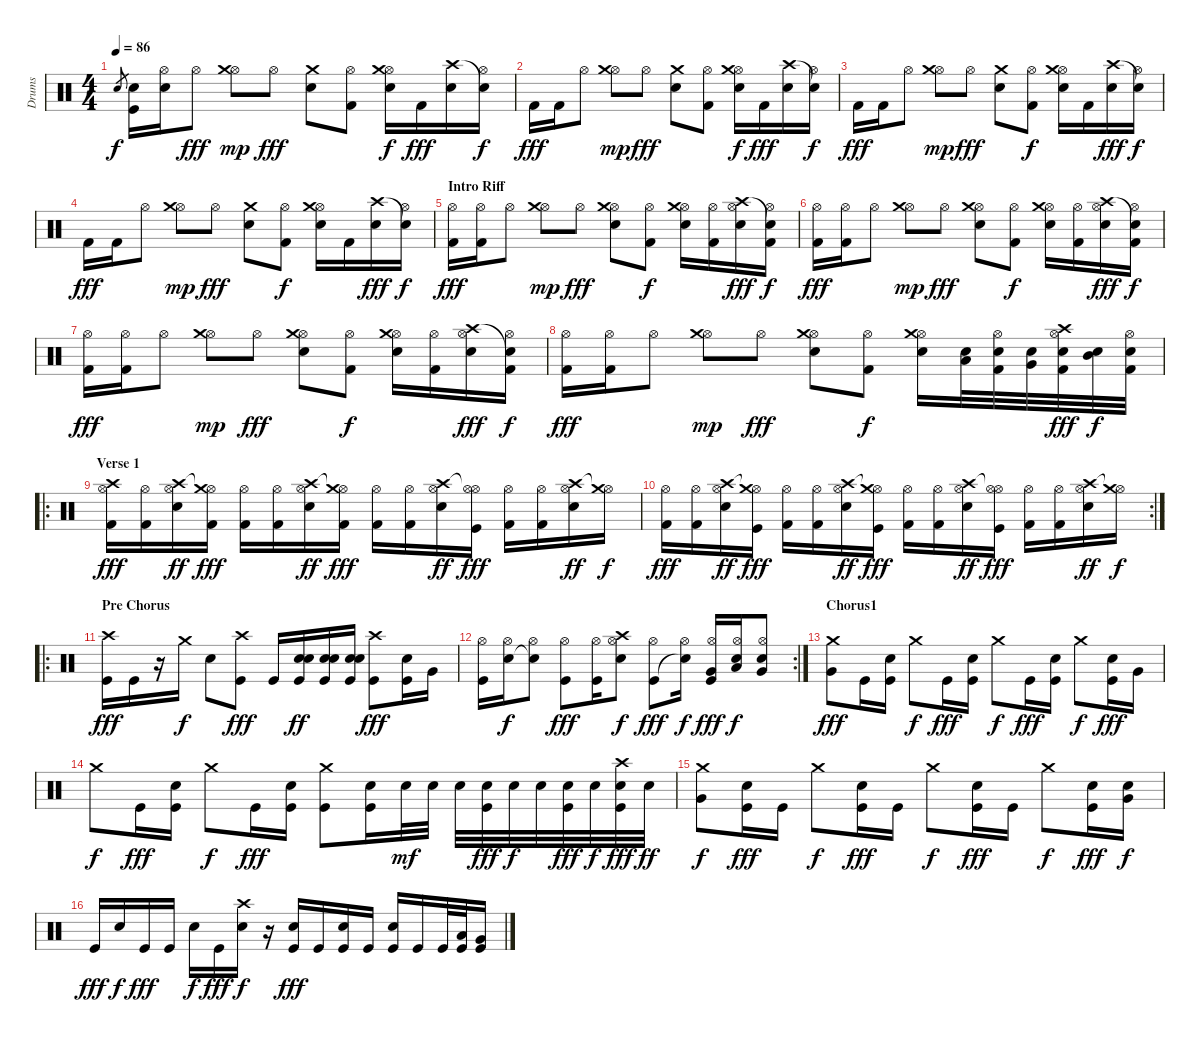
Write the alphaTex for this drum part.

\track ("Drums" "Drums") {instrument percussion}
\staff {score}
\articulation defaults
\ts (4 4)
\tempo 86
\clef neutral
\ks c "Snare (hit) 2".8{gr dy f}
("Snare (hit) 2" "Kick (hit)").16 ("Hi-Hat (open)" "Snare (hit) 2").16 "Hi-Hat (open)".8{dy fff} ("Hi-Hat (open)" "Crash medium (hit)").8{dy mp} "Hi-Hat (open)".8{dy fff} ("Crash medium (hit)" "Snare (hit) 2").8 ("Hi-Hat (open)" "Kick (hit) 2").8 ("Hi-Hat (open)" "Crash medium (hit)" "Snare (hit) 2").16{dy f} "Kick (hit) 2".16{dy fff} ("Crash high (hit)" "Snare (hit) 2").16 ("Snare (hit)"{t} "Hi-Hat (open)").16{dy f} |
"Kick (hit) 2".16{dy fff} "Kick (hit) 2".16 "Hi-Hat (open)".8 ("Hi-Hat (open)" "Crash medium (hit)").8{dy mp} "Hi-Hat (open)".8{dy fff} ("Crash medium (hit)" "Snare (hit) 2").8 ("Hi-Hat (open)" "Kick (hit) 2").8 ("Hi-Hat (open)" "Crash medium (hit)" "Snare (hit) 2").16{dy f} "Kick (hit) 2".16{dy fff} ("Crash high (hit)" "Snare (hit) 2").16 ("Snare (hit)"{t} "Hi-Hat (open)").16{dy f} |
"Kick (hit) 2".16{dy fff} "Kick (hit) 2".16 "Hi-Hat (open)".8 ("Hi-Hat (open)" "Crash medium (hit)").8{dy mp} "Hi-Hat (open)".8{dy fff} ("Crash medium (hit)" "Snare (hit) 2").8 ("Hi-Hat (open)" "Kick (hit) 2").8{dy f} ("Hi-Hat (open)" "Crash medium (hit)" "Snare (hit) 2").16 "Kick (hit) 2".16 ("Crash high (hit)" "Snare (hit) 2").16{dy fff} ("Snare (hit)"{t} "Hi-Hat (open)").16{dy f} |
"Kick (hit) 2".16{dy fff} "Kick (hit) 2".16 "Hi-Hat (open)".8 ("Hi-Hat (open)" "Crash medium (hit)").8{dy mp} "Hi-Hat (open)".8{dy fff} ("Crash medium (hit)" "Snare (hit) 2").8 ("Hi-Hat (open)" "Kick (hit) 2").8{dy f} ("Hi-Hat (open)" "Crash medium (hit)" "Snare (hit) 2").16 "Kick (hit) 2".16 ("Crash high (hit)" "Snare (hit) 2").16{dy fff} ("Snare (hit)"{t} "Hi-Hat (open)").16{dy f} |
\section ("" "Intro Riff")
("Hi-Hat (open)" "Kick (hit) 2").16{dy fff} ("Hi-Hat (open)" "Kick (hit) 2").16 "Hi-Hat (open)".8 ("Hi-Hat (open)" "Crash medium (hit)").8{dy mp} "Hi-Hat (open)".8{dy fff} ("Hi-Hat (open)" "Crash medium (hit)" "Snare (hit) 2").8 ("Hi-Hat (open)" "Kick (hit) 2").8{dy f} ("Hi-Hat (open)" "Crash medium (hit)" "Snare (hit) 2").16 ("Hi-Hat (open)" "Kick (hit) 2").16 ("Hi-Hat (open)" "Crash high (hit)" "Snare (hit) 2").16{dy fff} ("Hi-Hat (open)" "Snare (hit)"{t} "Kick (hit) 2").16{dy f} |
("Hi-Hat (open)" "Kick (hit) 2").16{dy fff} ("Hi-Hat (open)" "Kick (hit) 2").16 "Hi-Hat (open)".8 ("Hi-Hat (open)" "Crash medium (hit)").8{dy mp} "Hi-Hat (open)".8{dy fff} ("Hi-Hat (open)" "Crash medium (hit)" "Snare (hit) 2").8 ("Hi-Hat (open)" "Kick (hit) 2").8{dy f} ("Hi-Hat (open)" "Crash medium (hit)" "Snare (hit) 2").16 ("Hi-Hat (open)" "Kick (hit) 2").16 ("Hi-Hat (open)" "Crash high (hit)" "Snare (hit) 2").16{dy fff} ("Hi-Hat (open)" "Snare (hit)"{t} "Kick (hit) 2").16{dy f} |
("Hi-Hat (open)" "Kick (hit) 2").16{dy fff} ("Hi-Hat (open)" "Kick (hit) 2").16 "Hi-Hat (open)".8 ("Hi-Hat (open)" "Crash medium (hit)").8{dy mp} "Hi-Hat (open)".8{dy fff} ("Hi-Hat (open)" "Crash medium (hit)" "Snare (hit) 2").8 ("Hi-Hat (open)" "Kick (hit) 2").8{dy f} ("Hi-Hat (open)" "Crash medium (hit)" "Snare (hit) 2").16 ("Hi-Hat (open)" "Kick (hit) 2").16 ("Hi-Hat (open)" "Crash high (hit)" "Snare (hit) 2").16{dy fff} ("Hi-Hat (open)" "Snare (hit)"{t} "Kick (hit) 2").16{dy f} |
("Hi-Hat (open)" "Kick (hit) 2").16{dy fff} ("Hi-Hat (open)" "Kick (hit) 2").16 "Hi-Hat (open)".8 ("Hi-Hat (open)" "Crash medium (hit)").8{dy mp} "Hi-Hat (open)".8{dy fff} ("Hi-Hat (open)" "Crash medium (hit)" "Snare (hit) 2").8 ("Hi-Hat (open)" "Kick (hit) 2").8{dy f} ("Hi-Hat (open)" "Crash medium (hit)" "Snare (hit) 2").16 ("Low Tom (hit)" "Snare (hit) 2").32 ("Hi-Hat (open)" "Snare (hit) 2" "Kick (hit) 2").32 ("Very Low Tom (hit)" "Snare (hit) 2").32 ("Hi-Hat (open)" "Crash high (hit)" "Snare (hit) 2" "Kick (hit) 2").32{dy fff} ("Mid Tom (hit)" "Snare (hit) 2").32{dy f} ("Hi-Hat (open)" "Snare (hit) 2" "Kick (hit) 2").32 |
\ro
\section ("" "Verse 1")
("Hi-Hat (open)" "Crash high (hit)" "Kick (hit) 2").16{dy fff} ("Hi-Hat (open)" "Kick (hit) 2").16 ("Hi-Hat (open)" "Crash high (hit)" "Snare (hit) 2").16{dy ff} ("Hi-Hat (open)" "Crash medium (hit)"{t} "Kick (hit) 2").16{dy fff} ("Hi-Hat (open)" "Kick (hit) 2").16 ("Hi-Hat (open)" "Kick (hit) 2").16 ("Hi-Hat (open)" "Crash high (hit)" "Snare (hit) 2").16{dy ff} ("Hi-Hat (open)" "Crash medium (hit)"{t} "Kick (hit) 2").16{dy fff} ("Hi-Hat (open)" "Kick (hit) 2").16 ("Hi-Hat (open)" "Kick (hit) 2").16 ("Hi-Hat (open)" "Crash high (hit)" "Snare (hit) 2").16{dy ff} ("Hi-Hat (open)" "Hi-Hat (open)"{t} "Kick (hit)").16{dy fff} ("Hi-Hat (open)" "Kick (hit) 2").16 ("Hi-Hat (open)" "Kick (hit) 2").16 ("Hi-Hat (open)" "Crash high (hit)" "Snare (hit) 2").16{dy ff} ("Hi-Hat (open)" "Crash medium (hit)"{t}).16{dy f} |
\rc 2
("Hi-Hat (open)" "Kick (hit) 2").16{dy fff} ("Hi-Hat (open)" "Kick (hit) 2").16 ("Hi-Hat (open)" "Crash high (hit)" "Snare (hit) 2").16{dy ff} ("Hi-Hat (open)" "Crash medium (hit)"{t} "Kick (hit)").16{dy fff} ("Hi-Hat (open)" "Kick (hit) 2").16 ("Hi-Hat (open)" "Kick (hit) 2").16 ("Hi-Hat (open)" "Crash high (hit)" "Snare (hit) 2").16{dy ff} ("Hi-Hat (open)" "Crash medium (hit)"{t} "Kick (hit)").16{dy fff} ("Hi-Hat (open)" "Kick (hit) 2").16 ("Hi-Hat (open)" "Kick (hit) 2").16 ("Hi-Hat (open)" "Crash high (hit)" "Snare (hit) 2").16{dy ff} ("Hi-Hat (open)" "Hi-Hat (open)"{t} "Kick (hit)").16{dy fff} ("Hi-Hat (open)" "Kick (hit) 2").16 ("Hi-Hat (open)" "Kick (hit) 2").16 ("Hi-Hat (open)" "Crash high (hit)" "Snare (hit) 2").16{dy ff} ("Hi-Hat (open)" "Crash medium (hit)"{t}).16{dy f} |
\ro
\section ("" "Pre Chorus")
("Crash high (hit)" "Kick (hit)").16{dy fff} "Kick (hit)".16 r.16 "Crash medium (hit)".16{dy f} "Snare (hit) 2".8 ("Crash high (hit)" "Kick (hit)").8{dy fff} "Kick (hit)".16 ("Electric Snare (hit)" "Snare (hit) 2" "Kick (hit)").16{dy ff} ("Electric Snare (hit)" "Snare (hit) 2" "Kick (hit)").16 ("Electric Snare (hit)" "Snare (hit) 2" "Kick (hit)").16 ("Crash high (hit)" "Kick (hit)").8{dy fff} ("Snare (hit) 2" "Kick (hit)").16 "Very Low Tom (hit)".16 |
\rc 2
("Hi-Hat (open)" "Kick (hit)").16 ("Snare (hit) 2" "Hi-Hat (open)").16{dy f} ("Snare (hit) 2"{t} "Hi-Hat (open)").8 ("Hi-Hat (open)" "Kick (hit)").8{dy fff} ("Hi-Hat (open)" "Kick (hit)").16 ("Crash high (hit)" "Snare (hit) 2" "Hi-Hat (open)").8{dy f} ("Hi-Hat (open)" "Kick (hit)").8{dy fff} ("Hi-Hat (open)" "Snare (hit)"{t}).16{dy f} ("Very Low Tom (hit)" "Hi-Hat (open)" "Kick (hit)").16{dy fff} ("Low Tom (hit)" "Snare (hit) 2" "Hi-Hat (open)").16{dy f} ("Very Low Tom (hit)" "Snare (hit) 2" "Hi-Hat (open)").8 |
\section ("" "Chorus1")
("Very Low Tom (hit)" "Crash medium (hit)").8{dy fff} "Kick (hit)".16 ("Snare (hit) 2" "Kick (hit)").16 "Crash medium (hit)".8{dy f} "Kick (hit)".16{dy fff} ("Snare (hit) 2" "Kick (hit)").16 "Crash medium (hit)".8{dy f} "Kick (hit)".16{dy fff} ("Snare (hit) 2" "Kick (hit)").16 "Crash medium (hit)".8{dy f} ("Snare (hit) 2" "Kick (hit)").16{dy fff} "Very Low Tom (hit)".16 |
"Crash medium (hit)".8{dy f} "Kick (hit)".16{dy fff} ("Snare (hit) 2" "Kick (hit)").16 "Crash medium (hit)".8{dy f} "Kick (hit)".16{dy fff} ("Snare (hit) 2" "Kick (hit)").16 ("Crash medium (hit)" "Kick (hit)").8 ("Snare (hit) 2" "Kick (hit)").16 "Snare (hit) 2".32{dy mf} "Snare (hit) 2".32 "Snare (hit) 2".32 ("Snare (hit) 2" "Kick (hit)").32{dy fff} "Snare (hit) 2".32{dy f} "Snare (hit) 2".32 ("Snare (hit) 2" "Kick (hit)").32{dy fff} "Snare (hit) 2".32{dy f} ("Crash high (hit)" "Snare (hit) 2" "Kick (hit)").32{dy fff} "Snare (hit) 2".32{dy ff} |
("Very Low Tom (hit)" "Crash medium (hit)").8{dy f} ("Snare (hit) 2" "Kick (hit)").16{dy fff} "Kick (hit)".16 "Crash medium (hit)".8{dy f} ("Snare (hit) 2" "Kick (hit)").16{dy fff} "Kick (hit)".16 "Crash medium (hit)".8{dy f} ("Snare (hit) 2" "Kick (hit)").16{dy fff} "Kick (hit)".16 "Crash medium (hit)".8{dy f} ("Snare (hit) 2" "Kick (hit)").16{dy fff} ("Very Low Tom (hit)" "Snare (hit) 2").16{dy f} |
"Kick (hit)".16{dy fff} "Snare (hit) 2".16{dy f} "Kick (hit)".16{dy fff} "Kick (hit)".16 "Snare (hit) 2".16{dy f} "Kick (hit)".16{dy fff} ("Snare (hit) 2" "Crash high (hit)").16{dy f} r.16 ("Snare (hit) 2" "Kick (hit)").16{dy fff} "Kick (hit)".16 ("Snare (hit) 2" "Kick (hit)").16 "Kick (hit)".16 ("Snare (hit) 2" "Kick (hit)").16 "Kick (hit)".16 "Kick (hit)".32 ("Low Tom (hit)" "Kick (hit)").32 ("Very Low Tom (hit)" "Kick (hit)").16
